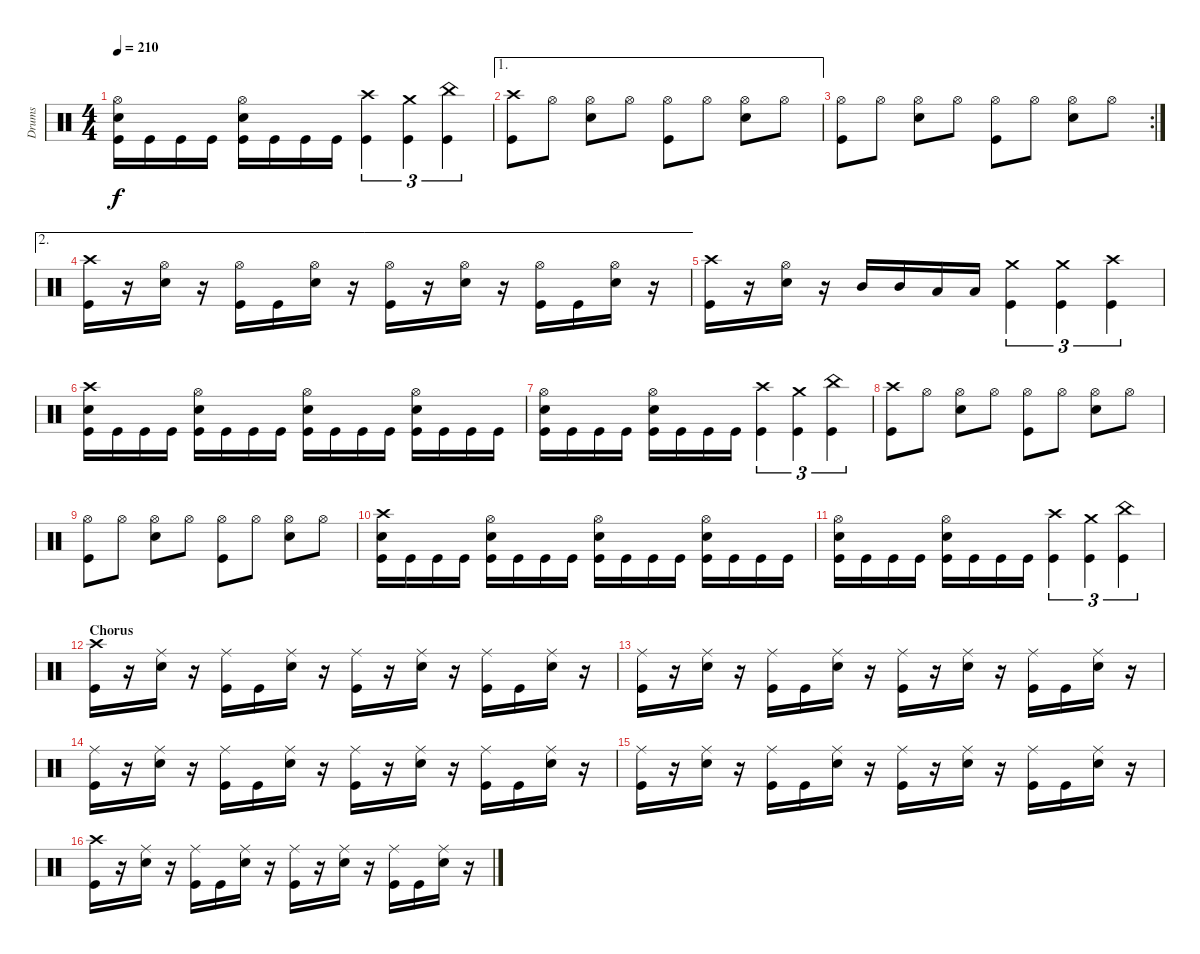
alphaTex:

\track ("Drums" "Drums") {instrument percussion}
\staff {score}
\articulation defaults
\ts (4 4)
\tempo 210
\clef neutral
\ks c
("Hi-Hat (open)" "Snare (hit) 2" "Kick (hit)").16{dy f} "Kick (hit)".16 "Kick (hit)".16 "Kick (hit)".16 ("Hi-Hat (open)" "Snare (hit) 2" "Kick (hit)").16 "Kick (hit)".16 "Kick (hit)".16 "Kick (hit)".16 ("Crash high (hit)" "Kick (hit)").4{tu (3 2)} ("Crash medium (hit)" "Kick (hit)").4{tu (3 2)} ("China (hit)" "Kick (hit)").4{tu (3 2)} |
\ae 1
("Crash high (hit)" "Kick (hit)").8 "Hi-Hat (open)".8 ("Hi-Hat (open)" "Snare (hit) 2").8 "Hi-Hat (open)".8 ("Hi-Hat (open)" "Kick (hit)").8 "Hi-Hat (open)".8 ("Hi-Hat (open)" "Snare (hit) 2").8 "Hi-Hat (open)".8 |
\rc 2
("Hi-Hat (open)" "Kick (hit)").8 "Hi-Hat (open)".8 ("Hi-Hat (open)" "Snare (hit) 2").8 "Hi-Hat (open)".8 ("Hi-Hat (open)" "Kick (hit)").8 "Hi-Hat (open)".8 ("Hi-Hat (open)" "Snare (hit) 2").8 "Hi-Hat (open)".8 |
\ae 2
("Crash high (hit)" "Kick (hit)").16 r.16 ("Hi-Hat (open)" "Snare (hit) 2").16 r.16 ("Hi-Hat (open)" "Kick (hit)").16 "Kick (hit)".16 ("Hi-Hat (open)" "Snare (hit) 2").16 r.16 ("Hi-Hat (open)" "Kick (hit)").16 r.16 ("Hi-Hat (open)" "Snare (hit) 2").16 r.16 ("Hi-Hat (open)" "Kick (hit)").16 "Kick (hit)".16 ("Hi-Hat (open)" "Snare (hit) 2").16 r.16 |
("Crash high (hit)" "Kick (hit)").16 r.16 ("Hi-Hat (open)" "Snare (hit) 2").16 r.16 "Mid Tom (hit)".16 "Mid Tom (hit)".16 "Low Tom (hit)".16 "Low Tom (hit)".16 ("Crash medium (hit)" "Kick (hit)").4{tu (3 2)} ("Crash medium (hit)" "Kick (hit)").4{tu (3 2)} ("Crash high (hit)" "Kick (hit)").4{tu (3 2)} |
("Crash high (hit)" "Snare (hit) 2" "Kick (hit)").16 "Kick (hit)".16 "Kick (hit)".16 "Kick (hit)".16 ("Hi-Hat (open)" "Snare (hit) 2" "Kick (hit)").16 "Kick (hit)".16 "Kick (hit)".16 "Kick (hit)".16 ("Hi-Hat (open)" "Snare (hit) 2" "Kick (hit)").16 "Kick (hit)".16 "Kick (hit)".16 "Kick (hit)".16 ("Hi-Hat (open)" "Snare (hit) 2" "Kick (hit)").16 "Kick (hit)".16 "Kick (hit)".16 "Kick (hit)".16 |
("Hi-Hat (open)" "Snare (hit) 2" "Kick (hit)").16 "Kick (hit)".16 "Kick (hit)".16 "Kick (hit)".16 ("Hi-Hat (open)" "Snare (hit) 2" "Kick (hit)").16 "Kick (hit)".16 "Kick (hit)".16 "Kick (hit)".16 ("Crash high (hit)" "Kick (hit)").4{tu (3 2)} ("Crash medium (hit)" "Kick (hit)").4{tu (3 2)} ("China (hit)" "Kick (hit)").4{tu (3 2)} |
("Crash high (hit)" "Kick (hit)").8 "Hi-Hat (open)".8 ("Hi-Hat (open)" "Snare (hit) 2").8 "Hi-Hat (open)".8 ("Hi-Hat (open)" "Kick (hit)").8 "Hi-Hat (open)".8 ("Hi-Hat (open)" "Snare (hit) 2").8 "Hi-Hat (open)".8 |
("Hi-Hat (open)" "Kick (hit)").8 "Hi-Hat (open)".8 ("Hi-Hat (open)" "Snare (hit) 2").8 "Hi-Hat (open)".8 ("Hi-Hat (open)" "Kick (hit)").8 "Hi-Hat (open)".8 ("Hi-Hat (open)" "Snare (hit) 2").8 "Hi-Hat (open)".8 |
("Crash high (hit)" "Snare (hit) 2" "Kick (hit)").16 "Kick (hit)".16 "Kick (hit)".16 "Kick (hit)".16 ("Hi-Hat (open)" "Snare (hit) 2" "Kick (hit)").16 "Kick (hit)".16 "Kick (hit)".16 "Kick (hit)".16 ("Hi-Hat (open)" "Snare (hit) 2" "Kick (hit)").16 "Kick (hit)".16 "Kick (hit)".16 "Kick (hit)".16 ("Hi-Hat (open)" "Snare (hit) 2" "Kick (hit)").16 "Kick (hit)".16 "Kick (hit)".16 "Kick (hit)".16 |
("Hi-Hat (open)" "Snare (hit) 2" "Kick (hit)").16 "Kick (hit)".16 "Kick (hit)".16 "Kick (hit)".16 ("Hi-Hat (open)" "Snare (hit) 2" "Kick (hit)").16 "Kick (hit)".16 "Kick (hit)".16 "Kick (hit)".16 ("Crash high (hit)" "Kick (hit)").4{tu (3 2)} ("Crash medium (hit)" "Kick (hit)").4{tu (3 2)} ("China (hit)" "Kick (hit)").4{tu (3 2)} |
\section ("" "Chorus")
("Crash high (hit)" "Kick (hit)").16 r.16 ("Ride (middle)" "Snare (hit) 2").16 r.16 ("Ride (middle)" "Kick (hit)").16 "Kick (hit)".16 ("Ride (middle)" "Snare (hit) 2").16 r.16 ("Ride (middle)" "Kick (hit)").16 r.16 ("Ride (middle)" "Snare (hit) 2").16 r.16 ("Ride (middle)" "Kick (hit)").16 "Kick (hit)".16 ("Ride (middle)" "Snare (hit) 2").16 r.16 |
("Ride (middle)" "Kick (hit)").16 r.16 ("Ride (middle)" "Snare (hit) 2").16 r.16 ("Ride (middle)" "Kick (hit)").16 "Kick (hit)".16 ("Ride (middle)" "Snare (hit) 2").16 r.16 ("Ride (middle)" "Kick (hit)").16 r.16 ("Ride (middle)" "Snare (hit) 2").16 r.16 ("Ride (middle)" "Kick (hit)").16 "Kick (hit)".16 ("Ride (middle)" "Snare (hit) 2").16 r.16 |
("Ride (middle)" "Kick (hit)").16 r.16 ("Ride (middle)" "Snare (hit) 2").16 r.16 ("Ride (middle)" "Kick (hit)").16 "Kick (hit)".16 ("Ride (middle)" "Snare (hit) 2").16 r.16 ("Ride (middle)" "Kick (hit)").16 r.16 ("Ride (middle)" "Snare (hit) 2").16 r.16 ("Ride (middle)" "Kick (hit)").16 "Kick (hit)".16 ("Ride (middle)" "Snare (hit) 2").16 r.16 |
("Ride (middle)" "Kick (hit)").16 r.16 ("Ride (middle)" "Snare (hit) 2").16 r.16 ("Ride (middle)" "Kick (hit)").16 "Kick (hit)".16 ("Ride (middle)" "Snare (hit) 2").16 r.16 ("Ride (middle)" "Kick (hit)").16 r.16 ("Ride (middle)" "Snare (hit) 2").16 r.16 ("Ride (middle)" "Kick (hit)").16 "Kick (hit)".16 ("Ride (middle)" "Snare (hit) 2").16 r.16 |
("Crash high (hit)" "Kick (hit)").16 r.16 ("Ride (middle)" "Snare (hit) 2").16 r.16 ("Ride (middle)" "Kick (hit)").16 "Kick (hit)".16 ("Ride (middle)" "Snare (hit) 2").16 r.16 ("Ride (middle)" "Kick (hit)").16 r.16 ("Ride (middle)" "Snare (hit) 2").16 r.16 ("Ride (middle)" "Kick (hit)").16 "Kick (hit)".16 ("Ride (middle)" "Snare (hit) 2").16 r.16
